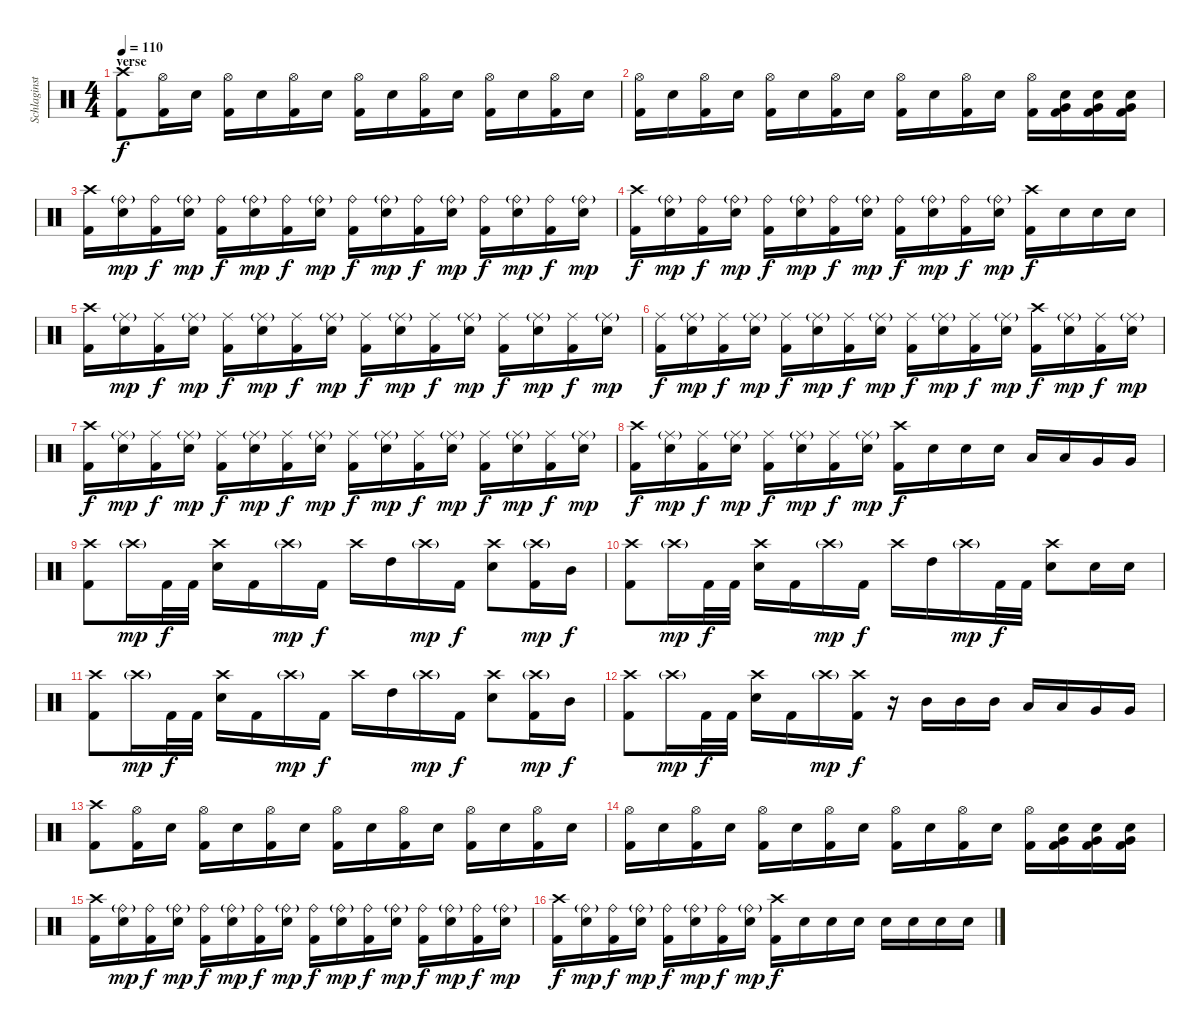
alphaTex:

\track ("Schlaginstrumente - Auswahl" "Schlaginst") {instrument percussion}
\staff {score}
\articulation defaults
\ts (4 4)
\section ("" "verse")
\tempo 110
\clef neutral
\ks c
("Crash high (hit)" "Kick (hit) 2").8{dy f} ("Hi-Hat (open)" "Kick (hit) 2").16 "Snare (hit) 2".16 ("Hi-Hat (open)" "Kick (hit) 2").16 "Snare (hit) 2".16 ("Hi-Hat (open)" "Kick (hit) 2").16 "Snare (hit) 2".16 ("Hi-Hat (open)" "Kick (hit) 2").16 "Snare (hit) 2".16 ("Hi-Hat (open)" "Kick (hit) 2").16 "Snare (hit) 2".16 ("Hi-Hat (open)" "Kick (hit) 2").16 "Snare (hit) 2".16 ("Hi-Hat (open)" "Kick (hit) 2").16 "Snare (hit) 2".16 |
("Hi-Hat (open)" "Kick (hit) 2").16 "Snare (hit) 2".16 ("Hi-Hat (open)" "Kick (hit) 2").16 "Snare (hit) 2".16 ("Hi-Hat (open)" "Kick (hit) 2").16 "Snare (hit) 2".16 ("Hi-Hat (open)" "Kick (hit) 2").16 "Snare (hit) 2".16 ("Hi-Hat (open)" "Kick (hit) 2").16 "Snare (hit) 2".16 ("Hi-Hat (open)" "Kick (hit) 2").16 "Snare (hit) 2".16 ("Hi-Hat (open)" "Kick (hit) 2").16 ("Snare (hit) 2" "Very Low Tom (hit)" "Kick (hit) 2").16 ("Snare (hit) 2" "Very Low Tom (hit)" "Kick (hit) 2").16 ("Snare (hit) 2" "Very Low Tom (hit)" "Kick (hit) 2").16 |
("Crash high (hit)" "Kick (hit) 2").16 ("Ride (bell)"{g} "Snare (hit) 2").16{dy mp} ("Ride (bell)" "Kick (hit) 2").16{dy f} ("Ride (bell)"{g} "Snare (hit) 2").16{dy mp} ("Ride (bell)" "Kick (hit) 2").16{dy f} ("Ride (bell)"{g} "Snare (hit) 2").16{dy mp} ("Ride (bell)" "Kick (hit) 2").16{dy f} ("Ride (bell)"{g} "Snare (hit) 2").16{dy mp} ("Ride (bell)" "Kick (hit) 2").16{dy f} ("Ride (bell)"{g} "Snare (hit) 2").16{dy mp} ("Ride (bell)" "Kick (hit) 2").16{dy f} ("Ride (bell)"{g} "Snare (hit) 2").16{dy mp} ("Ride (bell)" "Kick (hit) 2").16{dy f} ("Ride (bell)"{g} "Snare (hit) 2").16{dy mp} ("Ride (bell)" "Kick (hit) 2").16{dy f} ("Ride (bell)"{g} "Snare (hit) 2").16{dy mp} |
("Crash high (hit)" "Kick (hit) 2").16{dy f} ("Ride (bell)"{g} "Snare (hit) 2").16{dy mp} ("Ride (bell)" "Kick (hit) 2").16{dy f} ("Ride (bell)"{g} "Snare (hit) 2").16{dy mp} ("Ride (bell)" "Kick (hit) 2").16{dy f} ("Ride (bell)"{g} "Snare (hit) 2").16{dy mp} ("Ride (bell)" "Kick (hit) 2").16{dy f} ("Ride (bell)"{g} "Snare (hit) 2").16{dy mp} ("Ride (bell)" "Kick (hit) 2").16{dy f} ("Ride (bell)"{g} "Snare (hit) 2").16{dy mp} ("Ride (bell)" "Kick (hit) 2").16{dy f} ("Ride (bell)"{g} "Snare (hit) 2").16{dy mp} ("Crash high (hit)" "Kick (hit) 2").16{dy f} "Snare (hit) 2".16 "Snare (hit) 2".16 "Snare (hit) 2".16 |
("Crash high (hit)" "Kick (hit) 2").16 ("Ride (middle)"{g} "Snare (hit) 2").16{dy mp} ("Ride (middle)" "Kick (hit) 2").16{dy f} ("Ride (middle)"{g} "Snare (hit) 2").16{dy mp} ("Ride (middle)" "Kick (hit) 2").16{dy f} ("Ride (middle)"{g} "Snare (hit) 2").16{dy mp} ("Ride (middle)" "Kick (hit) 2").16{dy f} ("Ride (middle)"{g} "Snare (hit) 2").16{dy mp} ("Ride (middle)" "Kick (hit) 2").16{dy f} ("Ride (middle)"{g} "Snare (hit) 2").16{dy mp} ("Ride (middle)" "Kick (hit) 2").16{dy f} ("Ride (middle)"{g} "Snare (hit) 2").16{dy mp} ("Ride (middle)" "Kick (hit) 2").16{dy f} ("Ride (middle)"{g} "Snare (hit) 2").16{dy mp} ("Ride (middle)" "Kick (hit) 2").16{dy f} ("Ride (middle)"{g} "Snare (hit) 2").16{dy mp} |
("Ride (middle)" "Kick (hit) 2").16{dy f} ("Ride (middle)"{g} "Snare (hit) 2").16{dy mp} ("Ride (middle)" "Kick (hit) 2").16{dy f} ("Ride (middle)"{g} "Snare (hit) 2").16{dy mp} ("Ride (middle)" "Kick (hit) 2").16{dy f} ("Ride (middle)"{g} "Snare (hit) 2").16{dy mp} ("Ride (middle)" "Kick (hit) 2").16{dy f} ("Ride (middle)"{g} "Snare (hit) 2").16{dy mp} ("Ride (middle)" "Kick (hit) 2").16{dy f} ("Ride (middle)"{g} "Snare (hit) 2").16{dy mp} ("Ride (middle)" "Kick (hit) 2").16{dy f} ("Ride (middle)"{g} "Snare (hit) 2").16{dy mp} ("Crash high (hit)" "Kick (hit) 2").16{dy f} ("Ride (middle)"{g} "Snare (hit) 2").16{dy mp} ("Ride (middle)" "Kick (hit) 2").16{dy f} ("Ride (middle)"{g} "Snare (hit) 2").16{dy mp} |
("Crash high (hit)" "Kick (hit) 2").16{dy f} ("Ride (middle)"{g} "Snare (hit) 2").16{dy mp} ("Ride (middle)" "Kick (hit) 2").16{dy f} ("Ride (middle)"{g} "Snare (hit) 2").16{dy mp} ("Ride (middle)" "Kick (hit) 2").16{dy f} ("Ride (middle)"{g} "Snare (hit) 2").16{dy mp} ("Ride (middle)" "Kick (hit) 2").16{dy f} ("Ride (middle)"{g} "Snare (hit) 2").16{dy mp} ("Ride (middle)" "Kick (hit) 2").16{dy f} ("Ride (middle)"{g} "Snare (hit) 2").16{dy mp} ("Ride (middle)" "Kick (hit) 2").16{dy f} ("Ride (middle)"{g} "Snare (hit) 2").16{dy mp} ("Ride (middle)" "Kick (hit) 2").16{dy f} ("Ride (middle)"{g} "Snare (hit) 2").16{dy mp} ("Ride (middle)" "Kick (hit) 2").16{dy f} ("Ride (middle)"{g} "Snare (hit) 2").16{dy mp} |
("Crash high (hit)" "Kick (hit) 2").16{dy f} ("Ride (middle)"{g} "Snare (hit) 2").16{dy mp} ("Ride (middle)" "Kick (hit) 2").16{dy f} ("Ride (middle)"{g} "Snare (hit) 2").16{dy mp} ("Ride (middle)" "Kick (hit) 2").16{dy f} ("Ride (middle)"{g} "Snare (hit) 2").16{dy mp} ("Ride (middle)" "Kick (hit) 2").16{dy f} ("Ride (middle)"{g} "Snare (hit) 2").16{dy mp} ("Crash high (hit)" "Kick (hit) 2").16{dy f} "Snare (hit) 2".16 "Snare (hit) 2".16 "Snare (hit) 2".16 "Low Tom (hit)".16 "Low Tom (hit)".16 "Very Low Tom (hit)".16 "Very Low Tom (hit)".16 |
("Crash high (hit)" "Kick (hit) 2").8 "Crash high (hit)"{g}.16{dy mp} "Kick (hit) 2".32{dy f} "Kick (hit) 2".32 ("Crash high (hit)" "Snare (hit) 2").16 "Kick (hit) 2".16 "Crash high (hit)"{g}.16{dy mp} "Kick (hit) 2".16{dy f} "Crash high (hit)".16 "High Tom (hit)".16 "Crash high (hit)"{g}.16{dy mp} "Kick (hit) 2".16{dy f} ("Crash high (hit)" "Snare (hit) 2").8 ("Crash high (hit)"{g} "Kick (hit) 2").16{dy mp} "Mid Tom (hit)".16{dy f} |
("Crash high (hit)" "Kick (hit) 2").8 "Crash high (hit)"{g}.16{dy mp} "Kick (hit) 2".32{dy f} "Kick (hit) 2".32 ("Crash high (hit)" "Snare (hit) 2").16 "Kick (hit) 2".16 "Crash high (hit)"{g}.16{dy mp} "Kick (hit) 2".16{dy f} "Crash high (hit)".16 "High Tom (hit)".16 "Crash high (hit)"{g}.16{dy mp} "Kick (hit) 2".32{dy f} "Kick (hit) 2".32 ("Crash high (hit)" "Snare (hit) 2").8 "Snare (hit) 2".16 "Snare (hit) 2".16 |
("Crash high (hit)" "Kick (hit) 2").8 "Crash high (hit)"{g}.16{dy mp} "Kick (hit) 2".32{dy f} "Kick (hit) 2".32 ("Crash high (hit)" "Snare (hit) 2").16 "Kick (hit) 2".16 "Crash high (hit)"{g}.16{dy mp} "Kick (hit) 2".16{dy f} "Crash high (hit)".16 "High Tom (hit)".16 "Crash high (hit)"{g}.16{dy mp} "Kick (hit) 2".16{dy f} ("Crash high (hit)" "Snare (hit) 2").8 ("Crash high (hit)"{g} "Kick (hit) 2").16{dy mp} "Mid Tom (hit)".16{dy f} |
("Crash high (hit)" "Kick (hit) 2").8 "Crash high (hit)"{g}.16{dy mp} "Kick (hit) 2".32{dy f} "Kick (hit) 2".32 ("Crash high (hit)" "Snare (hit) 2").16 "Kick (hit) 2".16 "Crash high (hit)"{g}.16{dy mp} ("Crash high (hit)" "Kick (hit) 2").16{dy f} r.16 "Mid Tom (hit)".16 "Mid Tom (hit)".16 "Mid Tom (hit)".16 "Low Tom (hit)".16 "Low Tom (hit)".16 "Very Low Tom (hit)".16 "Very Low Tom (hit)".16 |
("Crash high (hit)" "Kick (hit) 2").8 ("Hi-Hat (open)" "Kick (hit) 2").16 "Snare (hit) 2".16 ("Hi-Hat (open)" "Kick (hit) 2").16 "Snare (hit) 2".16 ("Hi-Hat (open)" "Kick (hit) 2").16 "Snare (hit) 2".16 ("Hi-Hat (open)" "Kick (hit) 2").16 "Snare (hit) 2".16 ("Hi-Hat (open)" "Kick (hit) 2").16 "Snare (hit) 2".16 ("Hi-Hat (open)" "Kick (hit) 2").16 "Snare (hit) 2".16 ("Hi-Hat (open)" "Kick (hit) 2").16 "Snare (hit) 2".16 |
("Hi-Hat (open)" "Kick (hit) 2").16 "Snare (hit) 2".16 ("Hi-Hat (open)" "Kick (hit) 2").16 "Snare (hit) 2".16 ("Hi-Hat (open)" "Kick (hit) 2").16 "Snare (hit) 2".16 ("Hi-Hat (open)" "Kick (hit) 2").16 "Snare (hit) 2".16 ("Hi-Hat (open)" "Kick (hit) 2").16 "Snare (hit) 2".16 ("Hi-Hat (open)" "Kick (hit) 2").16 "Snare (hit) 2".16 ("Hi-Hat (open)" "Kick (hit) 2").16 ("Snare (hit) 2" "Very Low Tom (hit)" "Kick (hit) 2").16 ("Snare (hit) 2" "Very Low Tom (hit)" "Kick (hit) 2").16 ("Snare (hit) 2" "Very Low Tom (hit)" "Kick (hit) 2").16 |
("Crash high (hit)" "Kick (hit) 2").16 ("Ride (bell)"{g} "Snare (hit) 2").16{dy mp} ("Ride (bell)" "Kick (hit) 2").16{dy f} ("Ride (bell)"{g} "Snare (hit) 2").16{dy mp} ("Ride (bell)" "Kick (hit) 2").16{dy f} ("Ride (bell)"{g} "Snare (hit) 2").16{dy mp} ("Ride (bell)" "Kick (hit) 2").16{dy f} ("Ride (bell)"{g} "Snare (hit) 2").16{dy mp} ("Ride (bell)" "Kick (hit) 2").16{dy f} ("Ride (bell)"{g} "Snare (hit) 2").16{dy mp} ("Ride (bell)" "Kick (hit) 2").16{dy f} ("Ride (bell)"{g} "Snare (hit) 2").16{dy mp} ("Ride (bell)" "Kick (hit) 2").16{dy f} ("Ride (bell)"{g} "Snare (hit) 2").16{dy mp} ("Ride (bell)" "Kick (hit) 2").16{dy f} ("Ride (bell)"{g} "Snare (hit) 2").16{dy mp} |
("Crash high (hit)" "Kick (hit) 2").16{dy f} ("Ride (bell)"{g} "Snare (hit) 2").16{dy mp} ("Ride (bell)" "Kick (hit) 2").16{dy f} ("Ride (bell)"{g} "Snare (hit) 2").16{dy mp} ("Ride (bell)" "Kick (hit) 2").16{dy f} ("Ride (bell)"{g} "Snare (hit) 2").16{dy mp} ("Ride (bell)" "Kick (hit) 2").16{dy f} ("Ride (bell)"{g} "Snare (hit) 2").16{dy mp} ("Crash high (hit)" "Kick (hit) 2").16{dy f} "Snare (hit) 2".16 "Snare (hit) 2".16 "Snare (hit) 2".16 "Snare (hit) 2".16 "Snare (hit) 2".16 "Snare (hit) 2".16 "Snare (hit) 2".16
